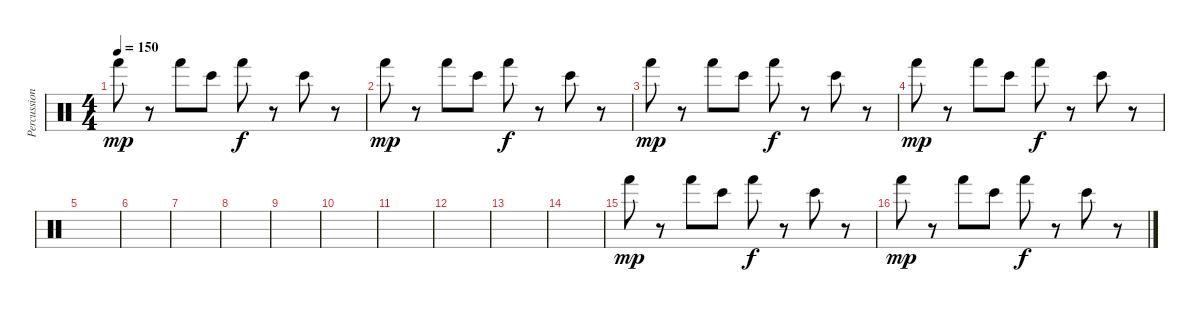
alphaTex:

\track ("Percussion" "Percussion") {instrument percussion}
\staff {score}
\articulation defaults
\ts (4 4)
\tempo 150
\clef neutral
\ks c "Hand (hit)".8{dy mp}
r.8 "Hand (hit)".8 "Bongo High (hit)".8 "Hand (hit)".8{dy f} r.8 "Bongo High (hit)".8 r.8 |
"Hand (hit)".8{dy mp} r.8 "Hand (hit)".8 "Bongo High (hit)".8 "Hand (hit)".8{dy f} r.8 "Bongo High (hit)".8 r.8 |
"Hand (hit)".8{dy mp} r.8 "Hand (hit)".8 "Bongo High (hit)".8 "Hand (hit)".8{dy f} r.8 "Bongo High (hit)".8 r.8 |
"Hand (hit)".8{dy mp} r.8 "Hand (hit)".8 "Bongo High (hit)".8 "Hand (hit)".8{dy f} r.8 "Bongo High (hit)".8 r.8 |
|
|
|
|
|
|
|
|
|
|
"Hand (hit)".8{dy mp} r.8 "Hand (hit)".8 "Bongo High (hit)".8 "Hand (hit)".8{dy f} r.8 "Bongo High (hit)".8 r.8 |
"Hand (hit)".8{dy mp} r.8 "Hand (hit)".8 "Bongo High (hit)".8 "Hand (hit)".8{dy f} r.8 "Bongo High (hit)".8 r.8
